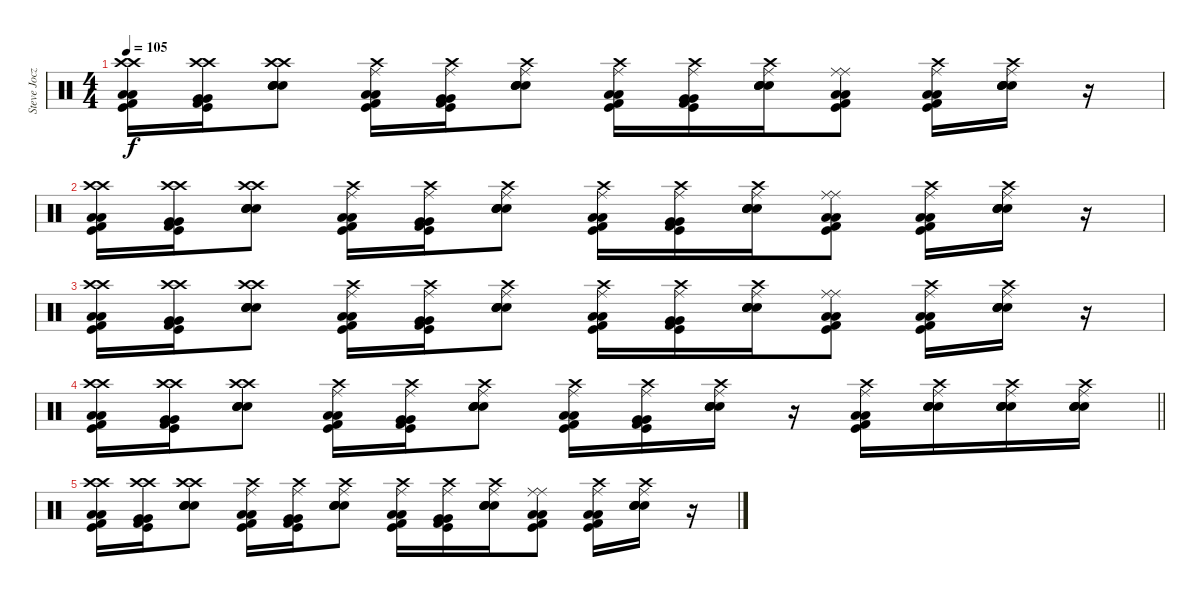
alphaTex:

\track ("Steve Jocz" "Steve Jocz") {instrument percussion}
\staff {score}
\articulation defaults
\ts (4 4)
\tempo 105
\clef neutral
\ks c
("Low Floor Tom (hit)" "Crash high (hit)" "Low Floor Tom (hit)" "Kick (hit)" "Crash high (hit)" "Kick (hit) 2").16{dy f} ("Very Low Tom (hit)" "Crash high (hit)" "Very Low Tom (hit)" "Kick (hit)" "Crash high (hit)" "Kick (hit) 2").16 ("Snare (hit) 2" "Crash high (hit)" "Snare (hit) 2" "Electric Snare (hit)" "Crash high (hit)" "Electric Snare (hit)").8 ("Low Floor Tom (hit)" "Ride (middle)" "Low Floor Tom (hit)" "Kick (hit)" "Crash high (hit)" "Kick (hit) 2").16 ("Very Low Tom (hit)" "Ride (middle)" "Very Low Tom (hit)" "Kick (hit)" "Crash high (hit)" "Kick (hit) 2").16 ("Snare (hit) 2" "Ride (middle)" "Snare (hit) 2" "Electric Snare (hit)" "Crash high (hit)" "Electric Snare (hit)").8 ("Low Floor Tom (hit)" "Ride (middle)" "Low Floor Tom (hit)" "Kick (hit)" "Crash high (hit)" "Kick (hit) 2").16 ("Very Low Tom (hit)" "Ride (middle)" "Very Low Tom (hit)" "Kick (hit)" "Crash high (hit)" "Kick (hit) 2").16 ("Snare (hit) 2" "Ride (middle)" "Snare (hit) 2" "Electric Snare (hit)" "Crash high (hit)" "Electric Snare (hit)").16 ("Low Floor Tom (hit)" "Ride (middle)" "Low Floor Tom (hit)" "Kick (hit)" "Ride (middle)" "Kick (hit) 2").8 ("Low Floor Tom (hit)" "Ride (middle)" "Low Floor Tom (hit)" "Kick (hit)" "Crash high (hit)" "Kick (hit) 2").16 ("Snare (hit) 2" "Ride (middle)" "Snare (hit) 2" "Electric Snare (hit)" "Crash high (hit)" "Electric Snare (hit)").16 r.16 |
("Low Floor Tom (hit)" "Crash high (hit)" "Low Floor Tom (hit)" "Kick (hit)" "Crash high (hit)" "Kick (hit) 2").16 ("Very Low Tom (hit)" "Crash high (hit)" "Very Low Tom (hit)" "Kick (hit)" "Crash high (hit)" "Kick (hit) 2").16 ("Snare (hit) 2" "Crash high (hit)" "Snare (hit) 2" "Electric Snare (hit)" "Crash high (hit)" "Electric Snare (hit)").8 ("Low Floor Tom (hit)" "Ride (middle)" "Low Floor Tom (hit)" "Kick (hit)" "Crash high (hit)" "Kick (hit) 2").16 ("Very Low Tom (hit)" "Ride (middle)" "Very Low Tom (hit)" "Kick (hit)" "Crash high (hit)" "Kick (hit) 2").16 ("Snare (hit) 2" "Ride (middle)" "Snare (hit) 2" "Electric Snare (hit)" "Crash high (hit)" "Electric Snare (hit)").8 ("Low Floor Tom (hit)" "Ride (middle)" "Low Floor Tom (hit)" "Kick (hit)" "Crash high (hit)" "Kick (hit) 2").16 ("Very Low Tom (hit)" "Ride (middle)" "Very Low Tom (hit)" "Kick (hit)" "Crash high (hit)" "Kick (hit) 2").16 ("Snare (hit) 2" "Ride (middle)" "Snare (hit) 2" "Electric Snare (hit)" "Crash high (hit)" "Electric Snare (hit)").16 ("Low Floor Tom (hit)" "Ride (middle)" "Low Floor Tom (hit)" "Kick (hit)" "Ride (middle)" "Kick (hit) 2").8 ("Low Floor Tom (hit)" "Ride (middle)" "Low Floor Tom (hit)" "Kick (hit)" "Crash high (hit)" "Kick (hit) 2").16 ("Snare (hit) 2" "Ride (middle)" "Snare (hit) 2" "Electric Snare (hit)" "Crash high (hit)" "Electric Snare (hit)").16 r.16 |
("Low Floor Tom (hit)" "Crash high (hit)" "Low Floor Tom (hit)" "Kick (hit)" "Crash high (hit)" "Kick (hit) 2").16 ("Very Low Tom (hit)" "Crash high (hit)" "Very Low Tom (hit)" "Kick (hit)" "Crash high (hit)" "Kick (hit) 2").16 ("Snare (hit) 2" "Crash high (hit)" "Snare (hit) 2" "Electric Snare (hit)" "Crash high (hit)" "Electric Snare (hit)").8 ("Low Floor Tom (hit)" "Ride (middle)" "Low Floor Tom (hit)" "Kick (hit)" "Crash high (hit)" "Kick (hit) 2").16 ("Very Low Tom (hit)" "Ride (middle)" "Very Low Tom (hit)" "Kick (hit)" "Crash high (hit)" "Kick (hit) 2").16 ("Snare (hit) 2" "Ride (middle)" "Snare (hit) 2" "Electric Snare (hit)" "Crash high (hit)" "Electric Snare (hit)").8 ("Low Floor Tom (hit)" "Ride (middle)" "Low Floor Tom (hit)" "Kick (hit)" "Crash high (hit)" "Kick (hit) 2").16 ("Very Low Tom (hit)" "Ride (middle)" "Very Low Tom (hit)" "Kick (hit)" "Crash high (hit)" "Kick (hit) 2").16 ("Snare (hit) 2" "Ride (middle)" "Snare (hit) 2" "Electric Snare (hit)" "Crash high (hit)" "Electric Snare (hit)").16 ("Low Floor Tom (hit)" "Ride (middle)" "Low Floor Tom (hit)" "Kick (hit)" "Ride (middle)" "Kick (hit) 2").8 ("Low Floor Tom (hit)" "Ride (middle)" "Low Floor Tom (hit)" "Kick (hit)" "Crash high (hit)" "Kick (hit) 2").16 ("Snare (hit) 2" "Ride (middle)" "Snare (hit) 2" "Electric Snare (hit)" "Crash high (hit)" "Electric Snare (hit)").16 r.16 |
\barLineRight lightlight
("Low Floor Tom (hit)" "Crash high (hit)" "Low Floor Tom (hit)" "Kick (hit)" "Crash high (hit)" "Kick (hit) 2").16 ("Very Low Tom (hit)" "Crash high (hit)" "Very Low Tom (hit)" "Kick (hit)" "Crash high (hit)" "Kick (hit) 2").16 ("Snare (hit) 2" "Crash high (hit)" "Snare (hit) 2" "Electric Snare (hit)" "Crash high (hit)" "Electric Snare (hit)").8 ("Low Floor Tom (hit)" "Ride (middle)" "Low Floor Tom (hit)" "Kick (hit)" "Crash high (hit)" "Kick (hit) 2").16 ("Very Low Tom (hit)" "Ride (middle)" "Very Low Tom (hit)" "Kick (hit)" "Crash high (hit)" "Kick (hit) 2").16 ("Snare (hit) 2" "Ride (middle)" "Snare (hit) 2" "Electric Snare (hit)" "Crash high (hit)" "Electric Snare (hit)").8 ("Low Floor Tom (hit)" "Ride (middle)" "Low Floor Tom (hit)" "Kick (hit)" "Crash high (hit)" "Kick (hit) 2").16 ("Very Low Tom (hit)" "Ride (middle)" "Very Low Tom (hit)" "Kick (hit)" "Crash high (hit)" "Kick (hit) 2").16 ("Snare (hit) 2" "Ride (middle)" "Snare (hit) 2" "Electric Snare (hit)" "Crash high (hit)" "Electric Snare (hit)").16 r.16 ("Low Floor Tom (hit)" "Ride (middle)" "Low Floor Tom (hit)" "Kick (hit)" "Crash high (hit)" "Kick (hit) 2").16 ("Snare (hit) 2" "Ride (middle)" "Snare (hit) 2" "Electric Snare (hit)" "Crash high (hit)" "Electric Snare (hit)").16 ("Snare (hit) 2" "Ride (middle)" "Snare (hit) 2" "Electric Snare (hit)" "Crash high (hit)" "Electric Snare (hit)").16 ("Snare (hit) 2" "Ride (middle)" "Snare (hit) 2" "Electric Snare (hit)" "Crash high (hit)" "Electric Snare (hit)").16 |
("Low Floor Tom (hit)" "Crash high (hit)" "Low Floor Tom (hit)" "Kick (hit)" "Crash high (hit)" "Kick (hit) 2").16 ("Very Low Tom (hit)" "Crash high (hit)" "Very Low Tom (hit)" "Kick (hit)" "Crash high (hit)" "Kick (hit) 2").16 ("Snare (hit) 2" "Crash high (hit)" "Snare (hit) 2" "Electric Snare (hit)" "Crash high (hit)" "Electric Snare (hit)").8 ("Low Floor Tom (hit)" "Ride (middle)" "Low Floor Tom (hit)" "Kick (hit)" "Crash high (hit)" "Kick (hit) 2").16 ("Very Low Tom (hit)" "Ride (middle)" "Very Low Tom (hit)" "Kick (hit)" "Crash high (hit)" "Kick (hit) 2").16 ("Snare (hit) 2" "Ride (middle)" "Snare (hit) 2" "Electric Snare (hit)" "Crash high (hit)" "Electric Snare (hit)").8 ("Low Floor Tom (hit)" "Ride (middle)" "Low Floor Tom (hit)" "Kick (hit)" "Crash high (hit)" "Kick (hit) 2").16 ("Very Low Tom (hit)" "Ride (middle)" "Very Low Tom (hit)" "Kick (hit)" "Crash high (hit)" "Kick (hit) 2").16 ("Snare (hit) 2" "Ride (middle)" "Snare (hit) 2" "Electric Snare (hit)" "Crash high (hit)" "Electric Snare (hit)").16 ("Low Floor Tom (hit)" "Ride (middle)" "Low Floor Tom (hit)" "Kick (hit)" "Ride (middle)" "Kick (hit) 2").8 ("Low Floor Tom (hit)" "Ride (middle)" "Low Floor Tom (hit)" "Kick (hit)" "Crash high (hit)" "Kick (hit) 2").16 ("Snare (hit) 2" "Ride (middle)" "Snare (hit) 2" "Electric Snare (hit)" "Crash high (hit)" "Electric Snare (hit)").16 r.16
